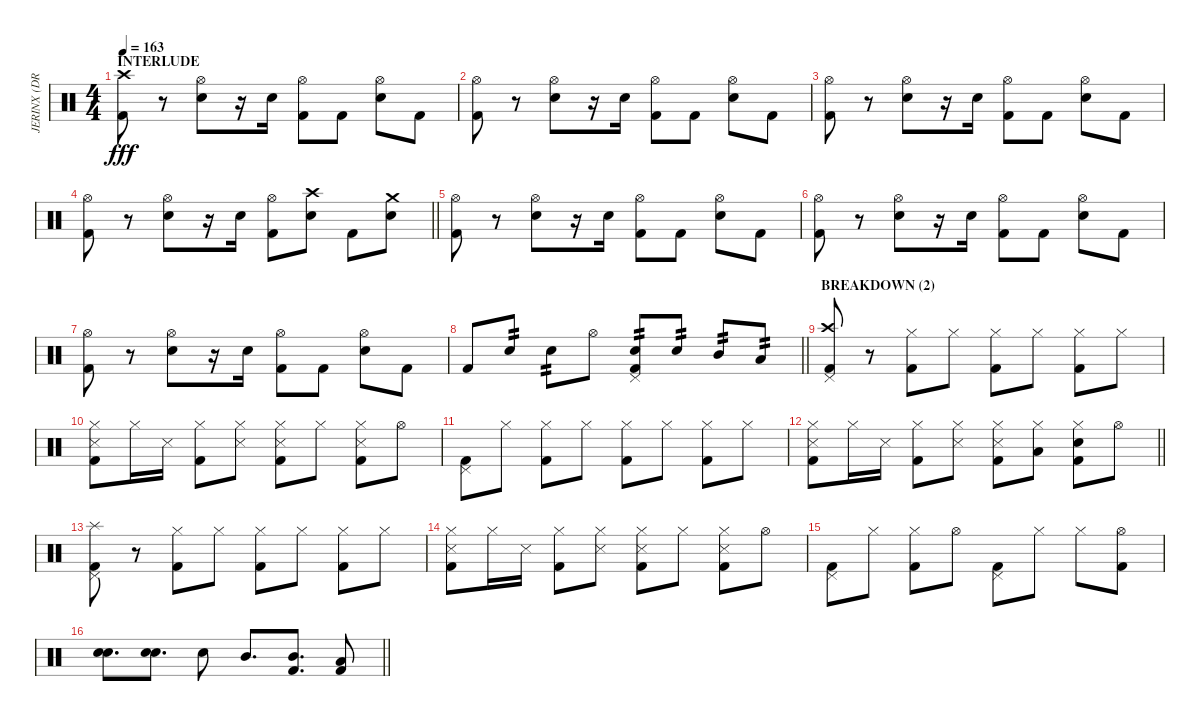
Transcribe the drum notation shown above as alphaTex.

\track ("JERINX (DRUM)" "JERINX (DR") {instrument percussion}
\staff {score}
\articulation defaults
\ts (4 4)
\section ("" "INTERLUDE")
\tempo 163
\clef neutral
\ks c
("Kick (hit) 2" "Crash high (hit)").8{dy fff} r.8 ("Hi-Hat (open)" "Snare (hit) 2").8 r.16 "Snare (hit) 2".16 ("Hi-Hat (open)" "Kick (hit) 2").8 "Kick (hit) 2".8 ("Hi-Hat (open)" "Snare (hit) 2").8 "Kick (hit) 2".8 |
("Hi-Hat (open)" "Kick (hit) 2").8 r.8 ("Hi-Hat (open)" "Snare (hit) 2").8 r.16 "Snare (hit) 2".16 ("Hi-Hat (open)" "Kick (hit) 2").8 "Kick (hit) 2".8 ("Hi-Hat (open)" "Snare (hit) 2").8 "Kick (hit) 2".8 |
("Hi-Hat (open)" "Kick (hit) 2").8 r.8 ("Hi-Hat (open)" "Snare (hit) 2").8 r.16 "Snare (hit) 2".16 ("Hi-Hat (open)" "Kick (hit) 2").8 "Kick (hit) 2".8 ("Hi-Hat (open)" "Snare (hit) 2").8 "Kick (hit) 2".8 |
\barLineRight lightlight
("Hi-Hat (open)" "Kick (hit) 2").8 r.8 ("Hi-Hat (open)" "Snare (hit) 2").8 r.16 "Snare (hit) 2".16 ("Hi-Hat (open)" "Kick (hit) 2").8 ("Crash high (hit)" "Snare (hit) 2").8 "Kick (hit) 2".8 ("Crash medium (hit)" "Snare (hit) 2").8 |
("Hi-Hat (open)" "Kick (hit) 2").8 r.8 ("Hi-Hat (open)" "Snare (hit) 2").8 r.16 "Snare (hit) 2".16 ("Hi-Hat (open)" "Kick (hit) 2").8 "Kick (hit) 2".8 ("Hi-Hat (open)" "Snare (hit) 2").8 "Kick (hit) 2".8 |
("Hi-Hat (open)" "Kick (hit) 2").8 r.8 ("Hi-Hat (open)" "Snare (hit) 2").8 r.16 "Snare (hit) 2".16 ("Hi-Hat (open)" "Kick (hit) 2").8 "Kick (hit) 2".8 ("Hi-Hat (open)" "Snare (hit) 2").8 "Kick (hit) 2".8 |
("Hi-Hat (open)" "Kick (hit) 2").8 r.8 ("Hi-Hat (open)" "Snare (hit) 2").8 r.16 "Snare (hit) 2".16 ("Hi-Hat (open)" "Kick (hit) 2").8 "Kick (hit) 2".8 ("Hi-Hat (open)" "Snare (hit) 2").8 "Kick (hit) 2".8 |
\barLineRight lightlight "Kick (hit) 2".8 "Snare (hit) 2".8{tp 2} "Snare (hit) 2".8{tp 2} "Hi-Hat (open)".8
("Pedal Hi-Hat (hit)" "Snare (hit) 2" "Kick (hit) 2").8{tp 2} "Snare (hit) 2".8{tp 2} "Mid Tom (hit)".8{tp 2} "Low Tom (hit)".8{tp 2} |
\section ("" "BREAKDOWN (2)")
("Pedal Hi-Hat (hit)" "Kick (hit) 2" "Crash high (hit)").8 r.8 ("Hi-Hat (closed)" "Kick (hit) 2").8 "Hi-Hat (closed)".8 ("Hi-Hat (closed)" "Kick (hit) 2").8 "Hi-Hat (closed)".8 ("Hi-Hat (closed)" "Kick (hit) 2").8 "Hi-Hat (closed)".8 |
("Hi-Hat (closed)" "Snare (side stick) 3" "Kick (hit) 2").8 "Hi-Hat (closed)".16 "Snare (side stick) 3".16 ("Hi-Hat (closed)" "Kick (hit) 2").8 ("Hi-Hat (closed)" "Snare (side stick) 3").8 ("Hi-Hat (closed)" "Snare (side stick) 3" "Kick (hit) 2").8 "Hi-Hat (closed)".8 ("Hi-Hat (closed)" "Snare (side stick) 3" "Kick (hit) 2").8 "Hi-Hat (open)".8 |
("Pedal Hi-Hat (hit)" "Kick (hit) 2").8 "Hi-Hat (closed)".8 ("Hi-Hat (closed)" "Kick (hit) 2").8 "Hi-Hat (closed)".8 ("Hi-Hat (closed)" "Kick (hit) 2").8 "Hi-Hat (closed)".8 ("Hi-Hat (closed)" "Kick (hit) 2").8 "Hi-Hat (closed)".8 |
\barLineRight lightlight
("Hi-Hat (closed)" "Snare (side stick) 3" "Kick (hit) 2").8 "Hi-Hat (closed)".16 "Snare (side stick) 3".16 ("Hi-Hat (closed)" "Kick (hit) 2").8 ("Hi-Hat (closed)" "Snare (side stick) 3").8 ("Hi-Hat (closed)" "Snare (side stick) 3" "Kick (hit) 2").8 ("Hi-Hat (closed)" "Low Tom (hit)").8 ("Hi-Hat (closed)" "Snare (hit) 2" "Kick (hit) 2").8 "Hi-Hat (open)".8 |
("Pedal Hi-Hat (hit)" "Kick (hit) 2" "Splash (hit)").8 r.8 ("Hi-Hat (closed)" "Kick (hit) 2").8 "Hi-Hat (closed)".8 ("Hi-Hat (closed)" "Kick (hit) 2").8 "Hi-Hat (closed)".8 ("Hi-Hat (closed)" "Kick (hit) 2").8 "Hi-Hat (closed)".8 |
("Hi-Hat (closed)" "Snare (side stick) 3" "Kick (hit) 2").8 "Hi-Hat (closed)".16 "Snare (side stick) 3".16 ("Hi-Hat (closed)" "Kick (hit) 2").8 ("Hi-Hat (closed)" "Snare (side stick) 3").8 ("Hi-Hat (closed)" "Snare (side stick) 3" "Kick (hit) 2").8 "Hi-Hat (closed)".8 ("Hi-Hat (closed)" "Snare (side stick) 3" "Kick (hit) 2").8 "Hi-Hat (open)".8 |
("Pedal Hi-Hat (hit)" "Kick (hit) 2").8 "Hi-Hat (closed)".8 ("Hi-Hat (closed)" "Kick (hit) 2").8 "Hi-Hat (open)".8 ("Pedal Hi-Hat (hit)" "Kick (hit) 2").8 "Hi-Hat (closed)".8 "Hi-Hat (closed)".8 ("Hi-Hat (open)" "Kick (hit) 2").8 |
\barLineRight lightlight
("Snare (hit) 2" "Snare (hit) 2").8{d bu 120} ("Snare (hit) 2" "Snare (hit) 2").8{d bu 120} "Snare (hit) 2".8 "Mid Tom (hit)".8{d} ("Kick (hit) 2" "Mid Tom (hit)").8{d} ("Kick (hit) 2" "Low Tom (hit)").8
